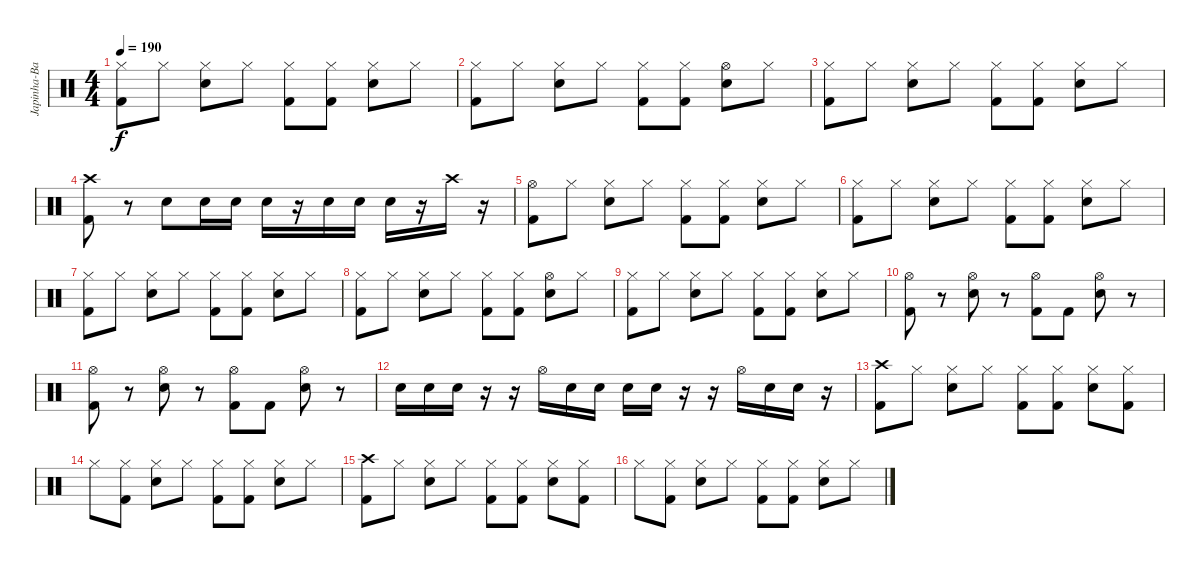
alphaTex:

\track ("Japinha-Batera" "Japinha-Ba") {instrument percussion}
\staff {score}
\articulation defaults
\ts (4 4)
\tempo 190
\clef neutral
\ks c
("Hi-Hat (closed)" "Kick (hit) 2").8{dy f} "Hi-Hat (closed)".8 ("Hi-Hat (closed)" "Electric Snare (hit)").8 "Hi-Hat (closed)".8 ("Hi-Hat (closed)" "Kick (hit) 2").8 ("Hi-Hat (closed)" "Kick (hit) 2").8 ("Hi-Hat (closed)" "Electric Snare (hit)").8 "Hi-Hat (closed)".8 |
("Hi-Hat (closed)" "Kick (hit) 2").8 "Hi-Hat (closed)".8 ("Hi-Hat (closed)" "Electric Snare (hit)").8 "Hi-Hat (closed)".8 ("Hi-Hat (closed)" "Kick (hit) 2").8 ("Hi-Hat (closed)" "Kick (hit) 2").8 ("Hi-Hat (open)" "Electric Snare (hit)").8 "Hi-Hat (closed)".8 |
("Hi-Hat (closed)" "Kick (hit) 2").8 "Hi-Hat (closed)".8 ("Hi-Hat (closed)" "Electric Snare (hit)").8 "Hi-Hat (closed)".8 ("Hi-Hat (closed)" "Kick (hit) 2").8 ("Hi-Hat (closed)" "Kick (hit) 2").8 ("Hi-Hat (closed)" "Electric Snare (hit)").8 "Hi-Hat (closed)".8 |
("Crash high (hit)" "Kick (hit) 2").8 r.8 "Electric Snare (hit)".8 "Electric Snare (hit)".16 "Electric Snare (hit)".16 "Electric Snare (hit)".16 r.16 "Electric Snare (hit)".16 "Electric Snare (hit)".16 "Electric Snare (hit)".16 r.16 "Crash high (hit)".16 r.16 |
("Hi-Hat (open)" "Kick (hit) 2").8 "Hi-Hat (closed)".8 ("Hi-Hat (closed)" "Electric Snare (hit)").8 "Hi-Hat (closed)".8 ("Hi-Hat (closed)" "Kick (hit) 2").8 ("Hi-Hat (closed)" "Kick (hit) 2").8 ("Hi-Hat (closed)" "Electric Snare (hit)").8 "Hi-Hat (closed)".8 |
("Hi-Hat (closed)" "Kick (hit) 2").8 "Hi-Hat (closed)".8 ("Hi-Hat (closed)" "Electric Snare (hit)").8 "Hi-Hat (closed)".8 ("Hi-Hat (closed)" "Kick (hit) 2").8 ("Hi-Hat (closed)" "Kick (hit) 2").8 ("Hi-Hat (closed)" "Electric Snare (hit)").8 "Hi-Hat (closed)".8 |
("Hi-Hat (closed)" "Kick (hit) 2").8 "Hi-Hat (closed)".8 ("Hi-Hat (closed)" "Electric Snare (hit)").8 "Hi-Hat (closed)".8 ("Hi-Hat (closed)" "Kick (hit) 2").8 ("Hi-Hat (closed)" "Kick (hit) 2").8 ("Hi-Hat (closed)" "Electric Snare (hit)").8 "Hi-Hat (closed)".8 |
("Hi-Hat (closed)" "Kick (hit) 2").8 "Hi-Hat (closed)".8 ("Hi-Hat (closed)" "Electric Snare (hit)").8 "Hi-Hat (closed)".8 ("Hi-Hat (closed)" "Kick (hit) 2").8 ("Hi-Hat (closed)" "Kick (hit) 2").8 ("Hi-Hat (open)" "Electric Snare (hit)").8 "Hi-Hat (closed)".8 |
("Hi-Hat (closed)" "Kick (hit) 2").8 "Hi-Hat (closed)".8 ("Hi-Hat (closed)" "Electric Snare (hit)").8 "Hi-Hat (closed)".8 ("Hi-Hat (closed)" "Kick (hit) 2").8 ("Hi-Hat (closed)" "Kick (hit) 2").8 ("Hi-Hat (closed)" "Electric Snare (hit)").8 "Hi-Hat (closed)".8 |
("Hi-Hat (open)" "Kick (hit) 2").8 r.8 ("Hi-Hat (open)" "Electric Snare (hit)").8 r.8 ("Hi-Hat (open)" "Kick (hit) 2").8 "Kick (hit) 2".8 ("Hi-Hat (open)" "Electric Snare (hit)").8 r.8 |
("Hi-Hat (open)" "Kick (hit) 2").8 r.8 ("Hi-Hat (open)" "Electric Snare (hit)").8 r.8 ("Hi-Hat (open)" "Kick (hit) 2").8 "Kick (hit) 2".8 ("Hi-Hat (open)" "Electric Snare (hit)").8 r.8 |
"Electric Snare (hit)".16 "Electric Snare (hit)".16 "Electric Snare (hit)".16 r.16 r.16 "Hi-Hat (open)".16 "Electric Snare (hit)".16 "Electric Snare (hit)".16 "Electric Snare (hit)".16 "Electric Snare (hit)".16 r.16 r.16 "Hi-Hat (open)".16 "Electric Snare (hit)".16 "Electric Snare (hit)".16 r.16 |
("Crash high (hit)" "Kick (hit) 2").8 "Hi-Hat (closed)".8 ("Hi-Hat (closed)" "Electric Snare (hit)").8 "Hi-Hat (closed)".8 ("Hi-Hat (closed)" "Kick (hit) 2").8 ("Hi-Hat (closed)" "Kick (hit) 2").8 ("Hi-Hat (closed)" "Electric Snare (hit)").8 ("Hi-Hat (closed)" "Kick (hit) 2").8 |
"Hi-Hat (closed)".8 ("Hi-Hat (closed)" "Kick (hit) 2").8 ("Hi-Hat (closed)" "Electric Snare (hit)").8 "Hi-Hat (closed)".8 ("Hi-Hat (closed)" "Kick (hit) 2").8 ("Hi-Hat (closed)" "Kick (hit) 2").8 ("Hi-Hat (closed)" "Electric Snare (hit)").8 "Hi-Hat (closed)".8 |
("Crash high (hit)" "Kick (hit) 2").8 "Hi-Hat (closed)".8 ("Hi-Hat (closed)" "Electric Snare (hit)").8 "Hi-Hat (closed)".8 ("Hi-Hat (closed)" "Kick (hit) 2").8 ("Hi-Hat (closed)" "Kick (hit) 2").8 ("Hi-Hat (closed)" "Electric Snare (hit)").8 ("Hi-Hat (closed)" "Kick (hit) 2").8 |
"Hi-Hat (closed)".8 ("Hi-Hat (closed)" "Kick (hit) 2").8 ("Hi-Hat (closed)" "Electric Snare (hit)").8 "Hi-Hat (closed)".8 ("Hi-Hat (closed)" "Kick (hit) 2").8 ("Hi-Hat (closed)" "Kick (hit) 2").8 ("Hi-Hat (closed)" "Electric Snare (hit)").8 "Hi-Hat (closed)".8
